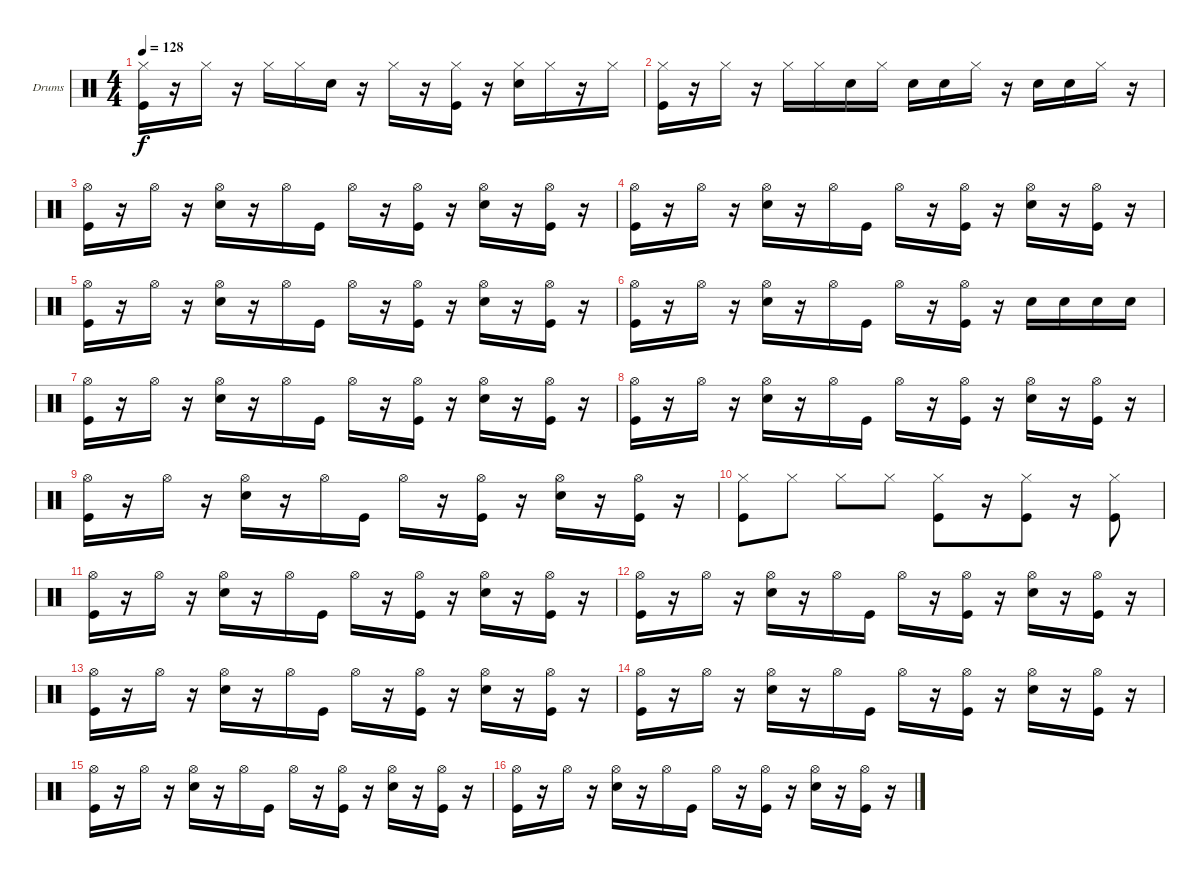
\bracketExtendMode groupsimilarinstruments
\firstSystemTrackNameOrientation horizontal
\otherSystemsTrackNameOrientation horizontal
\track ("Drumkit" "Drums") {instrument percussion}
\staff {score}
\articulation defaults
\ts (4 4)
\tempo 128
\clef neutral
\ks c
("Kick (hit)" "Hi-Hat (closed)").16{dy f} r.16 "Hi-Hat (closed)".16 r.16 "Hi-Hat (closed)".16 "Hi-Hat (closed)".16 "Snare (hit) 2".16 r.16 "Hi-Hat (closed)".16 r.16 ("Kick (hit)" "Hi-Hat (closed)").16 r.16 ("Snare (hit) 2" "Hi-Hat (closed)").16 "Hi-Hat (closed)".16 r.16 "Hi-Hat (closed)".16 |
("Kick (hit)" "Hi-Hat (closed)").16 r.16 "Hi-Hat (closed)".16 r.16 "Hi-Hat (closed)".16 "Hi-Hat (closed)".16 "Snare (hit) 2".16 "Hi-Hat (closed)".16 "Snare (hit) 2".16 "Snare (hit) 2".16 "Hi-Hat (closed)".16 r.16 "Snare (hit) 2".16 "Snare (hit) 2".16 "Hi-Hat (closed)".16 r.16 |
("Kick (hit)" "Hi-Hat (open)").16 r.16 "Hi-Hat (open)".16 r.16 ("Snare (hit) 2" "Hi-Hat (open)").16 r.16 "Hi-Hat (open)".16 "Kick (hit)".16 "Hi-Hat (open)".16 r.16 ("Kick (hit)" "Hi-Hat (open)").16 r.16 ("Snare (hit) 2" "Hi-Hat (open)").16 r.16 ("Kick (hit)" "Hi-Hat (open)").16 r.16 |
("Kick (hit)" "Hi-Hat (open)").16 r.16 "Hi-Hat (open)".16 r.16 ("Snare (hit) 2" "Hi-Hat (open)").16 r.16 "Hi-Hat (open)".16 "Kick (hit)".16 "Hi-Hat (open)".16 r.16 ("Kick (hit)" "Hi-Hat (open)").16 r.16 ("Snare (hit) 2" "Hi-Hat (open)").16 r.16 ("Kick (hit)" "Hi-Hat (open)").16 r.16 |
("Kick (hit)" "Hi-Hat (open)").16 r.16 "Hi-Hat (open)".16 r.16 ("Snare (hit) 2" "Hi-Hat (open)").16 r.16 "Hi-Hat (open)".16 "Kick (hit)".16 "Hi-Hat (open)".16 r.16 ("Kick (hit)" "Hi-Hat (open)").16 r.16 ("Snare (hit) 2" "Hi-Hat (open)").16 r.16 ("Kick (hit)" "Hi-Hat (open)").16 r.16 |
("Kick (hit)" "Hi-Hat (open)").16 r.16 "Hi-Hat (open)".16 r.16 ("Snare (hit) 2" "Hi-Hat (open)").16 r.16 "Hi-Hat (open)".16 "Kick (hit)".16 "Hi-Hat (open)".16 r.16 ("Kick (hit)" "Hi-Hat (open)").16 r.16 "Snare (hit) 2".16 "Snare (hit) 2".16 "Snare (hit) 2".16 "Snare (hit) 2".16 |
("Kick (hit)" "Hi-Hat (open)").16 r.16 "Hi-Hat (open)".16 r.16 ("Snare (hit) 2" "Hi-Hat (open)").16 r.16 "Hi-Hat (open)".16 "Kick (hit)".16 "Hi-Hat (open)".16 r.16 ("Kick (hit)" "Hi-Hat (open)").16 r.16 ("Snare (hit) 2" "Hi-Hat (open)").16 r.16 ("Kick (hit)" "Hi-Hat (open)").16 r.16 |
("Kick (hit)" "Hi-Hat (open)").16 r.16 "Hi-Hat (open)".16 r.16 ("Snare (hit) 2" "Hi-Hat (open)").16 r.16 "Hi-Hat (open)".16 "Kick (hit)".16 "Hi-Hat (open)".16 r.16 ("Kick (hit)" "Hi-Hat (open)").16 r.16 ("Snare (hit) 2" "Hi-Hat (open)").16 r.16 ("Kick (hit)" "Hi-Hat (open)").16 r.16 |
("Kick (hit)" "Hi-Hat (open)").16 r.16 "Hi-Hat (open)".16 r.16 ("Snare (hit) 2" "Hi-Hat (open)").16 r.16 "Hi-Hat (open)".16 "Kick (hit)".16 "Hi-Hat (open)".16 r.16 ("Kick (hit)" "Hi-Hat (open)").16 r.16 ("Snare (hit) 2" "Hi-Hat (open)").16 r.16 ("Kick (hit)" "Hi-Hat (open)").16 r.16 |
("Kick (hit)" "Hi-Hat (closed)").8 "Hi-Hat (closed)".8 "Hi-Hat (closed)".8 "Hi-Hat (closed)".8 ("Kick (hit)" "Hi-Hat (closed)").8 r.16 ("Kick (hit)" "Hi-Hat (closed)").8 r.16 ("Kick (hit)" "Hi-Hat (closed)").8 |
("Kick (hit)" "Hi-Hat (open)").16 r.16 "Hi-Hat (open)".16 r.16 ("Snare (hit) 2" "Hi-Hat (open)").16 r.16 "Hi-Hat (open)".16 "Kick (hit)".16 "Hi-Hat (open)".16 r.16 ("Kick (hit)" "Hi-Hat (open)").16 r.16 ("Snare (hit) 2" "Hi-Hat (open)").16 r.16 ("Kick (hit)" "Hi-Hat (open)").16 r.16 |
("Kick (hit)" "Hi-Hat (open)").16 r.16 "Hi-Hat (open)".16 r.16 ("Snare (hit) 2" "Hi-Hat (open)").16 r.16 "Hi-Hat (open)".16 "Kick (hit)".16 "Hi-Hat (open)".16 r.16 ("Kick (hit)" "Hi-Hat (open)").16 r.16 ("Snare (hit) 2" "Hi-Hat (open)").16 r.16 ("Kick (hit)" "Hi-Hat (open)").16 r.16 |
("Kick (hit)" "Hi-Hat (open)").16 r.16 "Hi-Hat (open)".16 r.16 ("Snare (hit) 2" "Hi-Hat (open)").16 r.16 "Hi-Hat (open)".16 "Kick (hit)".16 "Hi-Hat (open)".16 r.16 ("Kick (hit)" "Hi-Hat (open)").16 r.16 ("Snare (hit) 2" "Hi-Hat (open)").16 r.16 ("Kick (hit)" "Hi-Hat (open)").16 r.16 |
("Kick (hit)" "Hi-Hat (open)").16 r.16 "Hi-Hat (open)".16 r.16 ("Snare (hit) 2" "Hi-Hat (open)").16 r.16 "Hi-Hat (open)".16 "Kick (hit)".16 "Hi-Hat (open)".16 r.16 ("Kick (hit)" "Hi-Hat (open)").16 r.16 ("Snare (hit) 2" "Hi-Hat (open)").16 r.16 ("Kick (hit)" "Hi-Hat (open)").16 r.16 |
("Kick (hit)" "Hi-Hat (open)").16 r.16 "Hi-Hat (open)".16 r.16 ("Snare (hit) 2" "Hi-Hat (open)").16 r.16 "Hi-Hat (open)".16 "Kick (hit)".16 "Hi-Hat (open)".16 r.16 ("Kick (hit)" "Hi-Hat (open)").16 r.16 ("Snare (hit) 2" "Hi-Hat (open)").16 r.16 ("Kick (hit)" "Hi-Hat (open)").16 r.16 |
("Kick (hit)" "Hi-Hat (open)").16 r.16 "Hi-Hat (open)".16 r.16 ("Snare (hit) 2" "Hi-Hat (open)").16 r.16 "Hi-Hat (open)".16 "Kick (hit)".16 "Hi-Hat (open)".16 r.16 ("Kick (hit)" "Hi-Hat (open)").16 r.16 ("Snare (hit) 2" "Hi-Hat (open)").16 r.16 ("Kick (hit)" "Hi-Hat (open)").16 r.16
